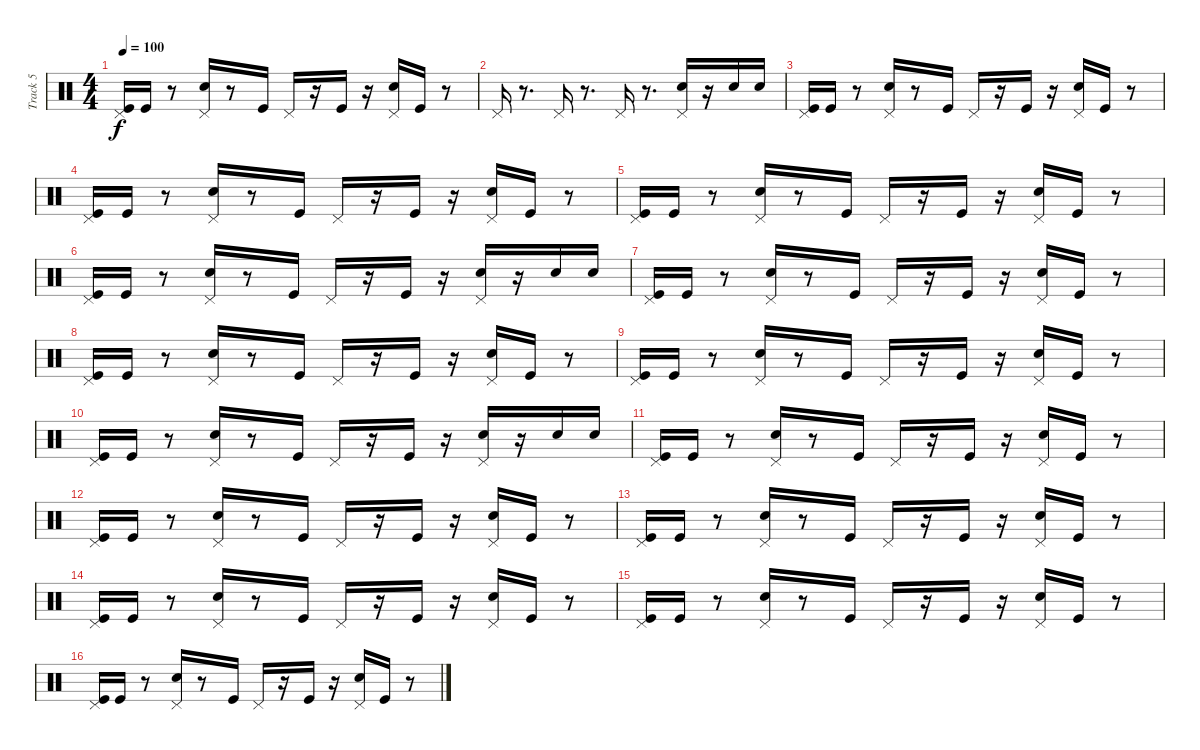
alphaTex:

\track ("Track 5" "Track 5") {instrument percussion}
\staff {score}
\articulation defaults
\ts (4 4)
\tempo 100
\clef neutral
\ks c
("Kick (hit)" "Pedal Hi-Hat (hit)").16{dy f} "Kick (hit)".16 r.8 ("Snare (hit) 2" "Pedal Hi-Hat (hit)").16 r.8 "Kick (hit)".16 "Pedal Hi-Hat (hit)".16 r.16 "Kick (hit)".16 r.16 ("Snare (hit) 2" "Pedal Hi-Hat (hit)").16 "Kick (hit)".16 r.8 |
"Pedal Hi-Hat (hit)".16 r.8{d} "Pedal Hi-Hat (hit)".16 r.8{d} "Pedal Hi-Hat (hit)".16 r.8{d} ("Snare (hit) 2" "Pedal Hi-Hat (hit)").16 r.16 "Snare (hit) 2".16 "Snare (hit) 2".16 |
("Kick (hit)" "Pedal Hi-Hat (hit)").16 "Kick (hit)".16 r.8 ("Snare (hit) 2" "Pedal Hi-Hat (hit)").16 r.8 "Kick (hit)".16 "Pedal Hi-Hat (hit)".16 r.16 "Kick (hit)".16 r.16 ("Snare (hit) 2" "Pedal Hi-Hat (hit)").16 "Kick (hit)".16 r.8 |
("Kick (hit)" "Pedal Hi-Hat (hit)").16 "Kick (hit)".16 r.8 ("Snare (hit) 2" "Pedal Hi-Hat (hit)").16 r.8 "Kick (hit)".16 "Pedal Hi-Hat (hit)".16 r.16 "Kick (hit)".16 r.16 ("Snare (hit) 2" "Pedal Hi-Hat (hit)").16 "Kick (hit)".16 r.8 |
("Kick (hit)" "Pedal Hi-Hat (hit)").16 "Kick (hit)".16 r.8 ("Snare (hit) 2" "Pedal Hi-Hat (hit)").16 r.8 "Kick (hit)".16 "Pedal Hi-Hat (hit)".16 r.16 "Kick (hit)".16 r.16 ("Snare (hit) 2" "Pedal Hi-Hat (hit)").16 "Kick (hit)".16 r.8 |
("Kick (hit)" "Pedal Hi-Hat (hit)").16 "Kick (hit)".16 r.8 ("Snare (hit) 2" "Pedal Hi-Hat (hit)").16 r.8 "Kick (hit)".16 "Pedal Hi-Hat (hit)".16 r.16 "Kick (hit)".16 r.16 ("Snare (hit) 2" "Pedal Hi-Hat (hit)").16 r.16 "Snare (hit) 2".16 "Snare (hit) 2".16 |
("Kick (hit)" "Pedal Hi-Hat (hit)").16 "Kick (hit)".16 r.8 ("Snare (hit) 2" "Pedal Hi-Hat (hit)").16 r.8 "Kick (hit)".16 "Pedal Hi-Hat (hit)".16 r.16 "Kick (hit)".16 r.16 ("Snare (hit) 2" "Pedal Hi-Hat (hit)").16 "Kick (hit)".16 r.8 |
("Kick (hit)" "Pedal Hi-Hat (hit)").16 "Kick (hit)".16 r.8 ("Snare (hit) 2" "Pedal Hi-Hat (hit)").16 r.8 "Kick (hit)".16 "Pedal Hi-Hat (hit)".16 r.16 "Kick (hit)".16 r.16 ("Snare (hit) 2" "Pedal Hi-Hat (hit)").16 "Kick (hit)".16 r.8 |
("Kick (hit)" "Pedal Hi-Hat (hit)").16 "Kick (hit)".16 r.8 ("Snare (hit) 2" "Pedal Hi-Hat (hit)").16 r.8 "Kick (hit)".16 "Pedal Hi-Hat (hit)".16 r.16 "Kick (hit)".16 r.16 ("Snare (hit) 2" "Pedal Hi-Hat (hit)").16 "Kick (hit)".16 r.8 |
("Kick (hit)" "Pedal Hi-Hat (hit)").16 "Kick (hit)".16 r.8 ("Snare (hit) 2" "Pedal Hi-Hat (hit)").16 r.8 "Kick (hit)".16 "Pedal Hi-Hat (hit)".16 r.16 "Kick (hit)".16 r.16 ("Snare (hit) 2" "Pedal Hi-Hat (hit)").16 r.16 "Snare (hit) 2".16 "Snare (hit) 2".16 |
("Kick (hit)" "Pedal Hi-Hat (hit)").16 "Kick (hit)".16 r.8 ("Snare (hit) 2" "Pedal Hi-Hat (hit)").16 r.8 "Kick (hit)".16 "Pedal Hi-Hat (hit)".16 r.16 "Kick (hit)".16 r.16 ("Snare (hit) 2" "Pedal Hi-Hat (hit)").16 "Kick (hit)".16 r.8 |
("Kick (hit)" "Pedal Hi-Hat (hit)").16 "Kick (hit)".16 r.8 ("Snare (hit) 2" "Pedal Hi-Hat (hit)").16 r.8 "Kick (hit)".16 "Pedal Hi-Hat (hit)".16 r.16 "Kick (hit)".16 r.16 ("Snare (hit) 2" "Pedal Hi-Hat (hit)").16 "Kick (hit)".16 r.8 |
("Kick (hit)" "Pedal Hi-Hat (hit)").16 "Kick (hit)".16 r.8 ("Snare (hit) 2" "Pedal Hi-Hat (hit)").16 r.8 "Kick (hit)".16 "Pedal Hi-Hat (hit)".16 r.16 "Kick (hit)".16 r.16 ("Snare (hit) 2" "Pedal Hi-Hat (hit)").16 "Kick (hit)".16 r.8 |
("Kick (hit)" "Pedal Hi-Hat (hit)").16 "Kick (hit)".16 r.8 ("Snare (hit) 2" "Pedal Hi-Hat (hit)").16 r.8 "Kick (hit)".16 "Pedal Hi-Hat (hit)".16 r.16 "Kick (hit)".16 r.16 ("Snare (hit) 2" "Pedal Hi-Hat (hit)").16 "Kick (hit)".16 r.8 |
("Kick (hit)" "Pedal Hi-Hat (hit)").16 "Kick (hit)".16 r.8 ("Snare (hit) 2" "Pedal Hi-Hat (hit)").16 r.8 "Kick (hit)".16 "Pedal Hi-Hat (hit)".16 r.16 "Kick (hit)".16 r.16 ("Snare (hit) 2" "Pedal Hi-Hat (hit)").16 "Kick (hit)".16 r.8 |
("Kick (hit)" "Pedal Hi-Hat (hit)").16 "Kick (hit)".16 r.8 ("Snare (hit) 2" "Pedal Hi-Hat (hit)").16 r.8 "Kick (hit)".16 "Pedal Hi-Hat (hit)".16 r.16 "Kick (hit)".16 r.16 ("Snare (hit) 2" "Pedal Hi-Hat (hit)").16 "Kick (hit)".16 r.8
